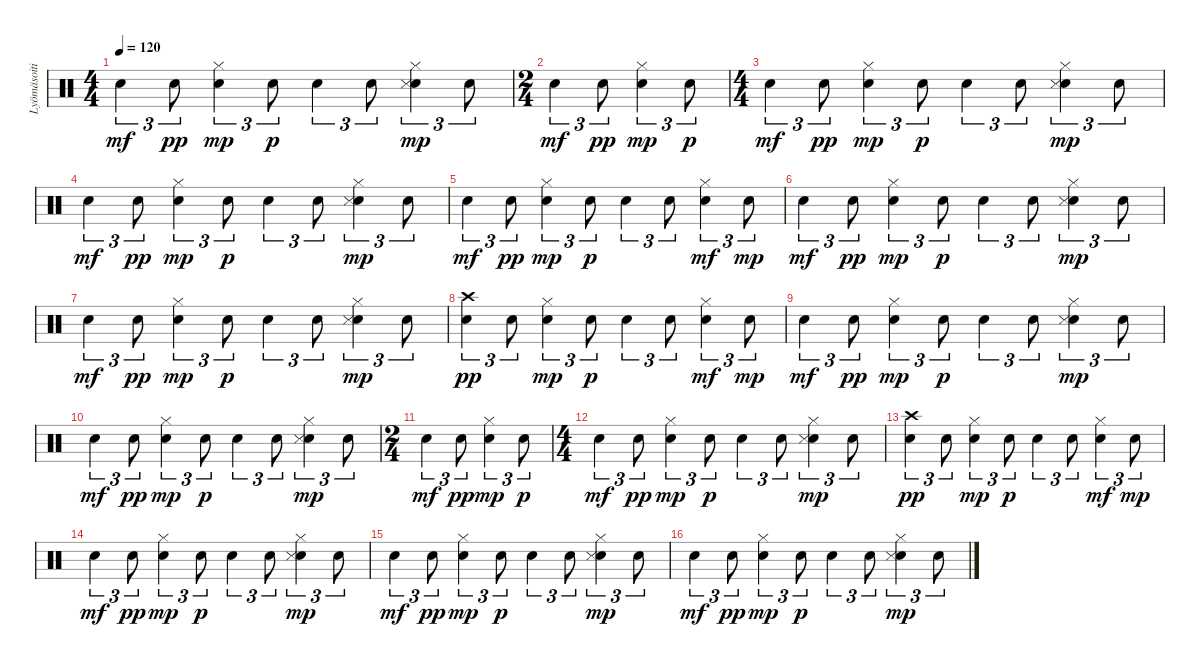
\track ("Lyömäsoitin" "Lyömäsoiti") {instrument percussion}
\staff {score}
\articulation defaults
\ts (4 4)
\tempo 120
\clef neutral
\ks c "Snare (hit) 2".4{tu (3 2) dy mf} "Snare (hit) 2".8{tu (3 2) dy pp}
("Snare (hit) 2" "Hi-Hat (closed)").4{tu (3 2) dy mp} "Snare (hit) 2".8{tu (3 2) dy p} "Snare (hit) 2".4{tu (3 2)} "Snare (hit) 2".8{tu (3 2)} ("Snare (hit) 2" "Hi-Hat (closed)" "Snare (side stick) 3").4{tu (3 2) dy mp} "Snare (hit) 2".8{tu (3 2)} |
\ts (2 4)
"Snare (hit) 2".4{tu (3 2) dy mf} "Snare (hit) 2".8{tu (3 2) dy pp} ("Snare (hit) 2" "Hi-Hat (closed)").4{tu (3 2) dy mp} "Snare (hit) 2".8{tu (3 2) dy p} |
\ts (4 4)
"Snare (hit) 2".4{tu (3 2) dy mf} "Snare (hit) 2".8{tu (3 2) dy pp} ("Snare (hit) 2" "Hi-Hat (closed)").4{tu (3 2) dy mp} "Snare (hit) 2".8{tu (3 2) dy p} "Snare (hit) 2".4{tu (3 2)} "Snare (hit) 2".8{tu (3 2)} ("Snare (hit) 2" "Hi-Hat (closed)" "Snare (side stick) 3").4{tu (3 2) dy mp} "Snare (hit) 2".8{tu (3 2)} |
"Snare (hit) 2".4{tu (3 2) dy mf} "Snare (hit) 2".8{tu (3 2) dy pp} ("Snare (hit) 2" "Hi-Hat (closed)").4{tu (3 2) dy mp} "Snare (hit) 2".8{tu (3 2) dy p} "Snare (hit) 2".4{tu (3 2)} "Snare (hit) 2".8{tu (3 2)} ("Snare (hit) 2" "Hi-Hat (closed)" "Snare (side stick) 3").4{tu (3 2) dy mp} "Snare (hit) 2".8{tu (3 2)} |
"Snare (hit) 2".4{tu (3 2) dy mf} "Snare (hit) 2".8{tu (3 2) dy pp} ("Snare (hit) 2" "Hi-Hat (closed)").4{tu (3 2) dy mp} "Snare (hit) 2".8{tu (3 2) dy p} "Snare (hit) 2".4{tu (3 2)} "Snare (hit) 2".8{tu (3 2)} ("Snare (hit) 2" "Hi-Hat (closed)").4{tu (3 2) dy mf} "Snare (hit) 2".8{tu (3 2) dy mp} |
"Snare (hit) 2".4{tu (3 2) dy mf} "Snare (hit) 2".8{tu (3 2) dy pp} ("Snare (hit) 2" "Hi-Hat (closed)").4{tu (3 2) dy mp} "Snare (hit) 2".8{tu (3 2) dy p} "Snare (hit) 2".4{tu (3 2)} "Snare (hit) 2".8{tu (3 2)} ("Snare (hit) 2" "Hi-Hat (closed)" "Snare (side stick) 3").4{tu (3 2) dy mp} "Snare (hit) 2".8{tu (3 2)} |
"Snare (hit) 2".4{tu (3 2) dy mf} "Snare (hit) 2".8{tu (3 2) dy pp} ("Snare (hit) 2" "Hi-Hat (closed)").4{tu (3 2) dy mp} "Snare (hit) 2".8{tu (3 2) dy p} "Snare (hit) 2".4{tu (3 2)} "Snare (hit) 2".8{tu (3 2)} ("Snare (hit) 2" "Hi-Hat (closed)" "Snare (side stick) 3").4{tu (3 2) dy mp} "Snare (hit) 2".8{tu (3 2)} |
("Snare (hit) 2" "Crash high (hit)").4{tu (3 2) dy pp} "Snare (hit) 2".8{tu (3 2)} ("Snare (hit) 2" "Hi-Hat (closed)").4{tu (3 2) dy mp} "Snare (hit) 2".8{tu (3 2) dy p} "Snare (hit) 2".4{tu (3 2)} "Snare (hit) 2".8{tu (3 2)} ("Snare (hit) 2" "Hi-Hat (closed)").4{tu (3 2) dy mf} "Snare (hit) 2".8{tu (3 2) dy mp} |
"Snare (hit) 2".4{tu (3 2) dy mf} "Snare (hit) 2".8{tu (3 2) dy pp} ("Snare (hit) 2" "Hi-Hat (closed)").4{tu (3 2) dy mp} "Snare (hit) 2".8{tu (3 2) dy p} "Snare (hit) 2".4{tu (3 2)} "Snare (hit) 2".8{tu (3 2)} ("Snare (hit) 2" "Hi-Hat (closed)" "Snare (side stick) 3").4{tu (3 2) dy mp} "Snare (hit) 2".8{tu (3 2)} |
"Snare (hit) 2".4{tu (3 2) dy mf} "Snare (hit) 2".8{tu (3 2) dy pp} ("Snare (hit) 2" "Hi-Hat (closed)").4{tu (3 2) dy mp} "Snare (hit) 2".8{tu (3 2) dy p} "Snare (hit) 2".4{tu (3 2)} "Snare (hit) 2".8{tu (3 2)} ("Snare (hit) 2" "Hi-Hat (closed)" "Snare (side stick) 3").4{tu (3 2) dy mp} "Snare (hit) 2".8{tu (3 2)} |
\ts (2 4)
"Snare (hit) 2".4{tu (3 2) dy mf} "Snare (hit) 2".8{tu (3 2) dy pp} ("Snare (hit) 2" "Hi-Hat (closed)").4{tu (3 2) dy mp} "Snare (hit) 2".8{tu (3 2) dy p} |
\ts (4 4)
"Snare (hit) 2".4{tu (3 2) dy mf} "Snare (hit) 2".8{tu (3 2) dy pp} ("Snare (hit) 2" "Hi-Hat (closed)").4{tu (3 2) dy mp} "Snare (hit) 2".8{tu (3 2) dy p} "Snare (hit) 2".4{tu (3 2)} "Snare (hit) 2".8{tu (3 2)} ("Snare (hit) 2" "Hi-Hat (closed)" "Snare (side stick) 3").4{tu (3 2) dy mp} "Snare (hit) 2".8{tu (3 2)} |
("Snare (hit) 2" "Crash high (hit)").4{tu (3 2) dy pp} "Snare (hit) 2".8{tu (3 2)} ("Snare (hit) 2" "Hi-Hat (closed)").4{tu (3 2) dy mp} "Snare (hit) 2".8{tu (3 2) dy p} "Snare (hit) 2".4{tu (3 2)} "Snare (hit) 2".8{tu (3 2)} ("Snare (hit) 2" "Hi-Hat (closed)").4{tu (3 2) dy mf} "Snare (hit) 2".8{tu (3 2) dy mp} |
"Snare (hit) 2".4{tu (3 2) dy mf} "Snare (hit) 2".8{tu (3 2) dy pp} ("Snare (hit) 2" "Hi-Hat (closed)").4{tu (3 2) dy mp} "Snare (hit) 2".8{tu (3 2) dy p} "Snare (hit) 2".4{tu (3 2)} "Snare (hit) 2".8{tu (3 2)} ("Snare (hit) 2" "Hi-Hat (closed)" "Snare (side stick) 3").4{tu (3 2) dy mp} "Snare (hit) 2".8{tu (3 2)} |
"Snare (hit) 2".4{tu (3 2) dy mf} "Snare (hit) 2".8{tu (3 2) dy pp} ("Snare (hit) 2" "Hi-Hat (closed)").4{tu (3 2) dy mp} "Snare (hit) 2".8{tu (3 2) dy p} "Snare (hit) 2".4{tu (3 2)} "Snare (hit) 2".8{tu (3 2)} ("Snare (hit) 2" "Hi-Hat (closed)" "Snare (side stick) 3").4{tu (3 2) dy mp} "Snare (hit) 2".8{tu (3 2)} |
"Snare (hit) 2".4{tu (3 2) dy mf} "Snare (hit) 2".8{tu (3 2) dy pp} ("Snare (hit) 2" "Hi-Hat (closed)").4{tu (3 2) dy mp} "Snare (hit) 2".8{tu (3 2) dy p} "Snare (hit) 2".4{tu (3 2)} "Snare (hit) 2".8{tu (3 2)} ("Snare (hit) 2" "Hi-Hat (closed)" "Snare (side stick) 3").4{tu (3 2) dy mp} "Snare (hit) 2".8{tu (3 2)}
